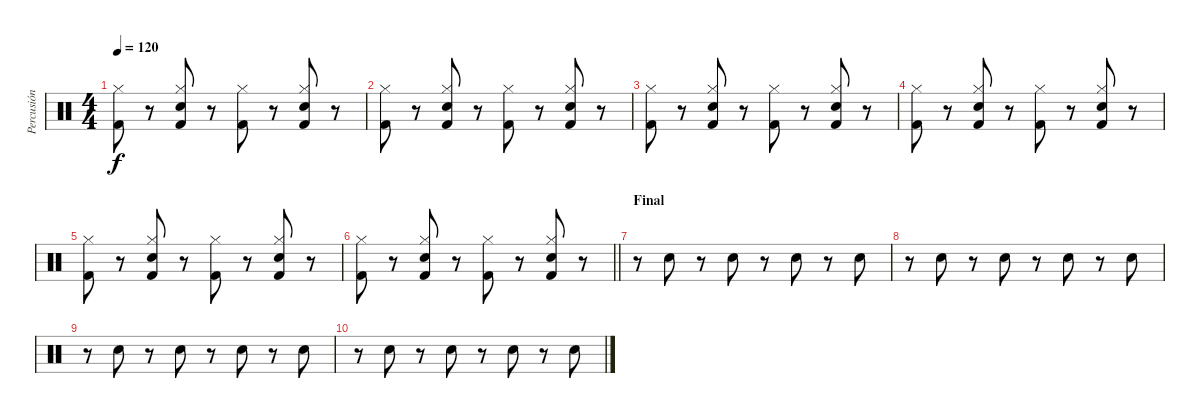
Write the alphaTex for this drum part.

\track ("Percusión" "Percusión") {instrument percussion}
\staff {score}
\articulation defaults
\ts (4 4)
\tempo 120
\clef neutral
\ks c
("Kick (hit) 2" "Hi-Hat (closed)").8{dy f} r.8 ("Kick (hit) 2" "Hi-Hat (closed)" "Snare (hit) 2").8 r.8 ("Kick (hit) 2" "Hi-Hat (closed)").8 r.8 ("Kick (hit) 2" "Hi-Hat (closed)" "Snare (hit) 2").8 r.8 |
("Kick (hit) 2" "Hi-Hat (closed)").8 r.8 ("Kick (hit) 2" "Hi-Hat (closed)" "Snare (hit) 2").8 r.8 ("Kick (hit) 2" "Hi-Hat (closed)").8 r.8 ("Kick (hit) 2" "Hi-Hat (closed)" "Snare (hit) 2").8 r.8 |
("Kick (hit) 2" "Hi-Hat (closed)").8 r.8 ("Kick (hit) 2" "Hi-Hat (closed)" "Snare (hit) 2").8 r.8 ("Kick (hit) 2" "Hi-Hat (closed)").8 r.8 ("Kick (hit) 2" "Hi-Hat (closed)" "Snare (hit) 2").8 r.8 |
("Kick (hit) 2" "Hi-Hat (closed)").8 r.8 ("Kick (hit) 2" "Hi-Hat (closed)" "Snare (hit) 2").8 r.8 ("Kick (hit) 2" "Hi-Hat (closed)").8 r.8 ("Kick (hit) 2" "Hi-Hat (closed)" "Snare (hit) 2").8 r.8 |
("Kick (hit) 2" "Hi-Hat (closed)").8 r.8 ("Kick (hit) 2" "Hi-Hat (closed)" "Snare (hit) 2").8 r.8 ("Kick (hit) 2" "Hi-Hat (closed)").8 r.8 ("Kick (hit) 2" "Hi-Hat (closed)" "Snare (hit) 2").8 r.8 |
\barLineRight lightlight
("Kick (hit) 2" "Hi-Hat (closed)").8 r.8 ("Kick (hit) 2" "Hi-Hat (closed)" "Snare (hit) 2").8 r.8 ("Kick (hit) 2" "Hi-Hat (closed)").8 r.8 ("Kick (hit) 2" "Hi-Hat (closed)" "Snare (hit) 2").8 r.8 |
\section ("" "Final")
r.8 "Hand Clap (hit)".8 r.8 "Hand Clap (hit)".8 r.8 "Hand Clap (hit)".8 r.8 "Hand Clap (hit)".8 |
r.8 "Hand Clap (hit)".8 r.8 "Hand Clap (hit)".8 r.8 "Hand Clap (hit)".8 r.8 "Hand Clap (hit)".8 |
r.8 "Hand Clap (hit)".8 r.8 "Hand Clap (hit)".8 r.8 "Hand Clap (hit)".8 r.8 "Hand Clap (hit)".8 |
r.8 "Hand Clap (hit)".8 r.8 "Hand Clap (hit)".8 r.8 "Hand Clap (hit)".8 r.8 "Hand Clap (hit)".8
